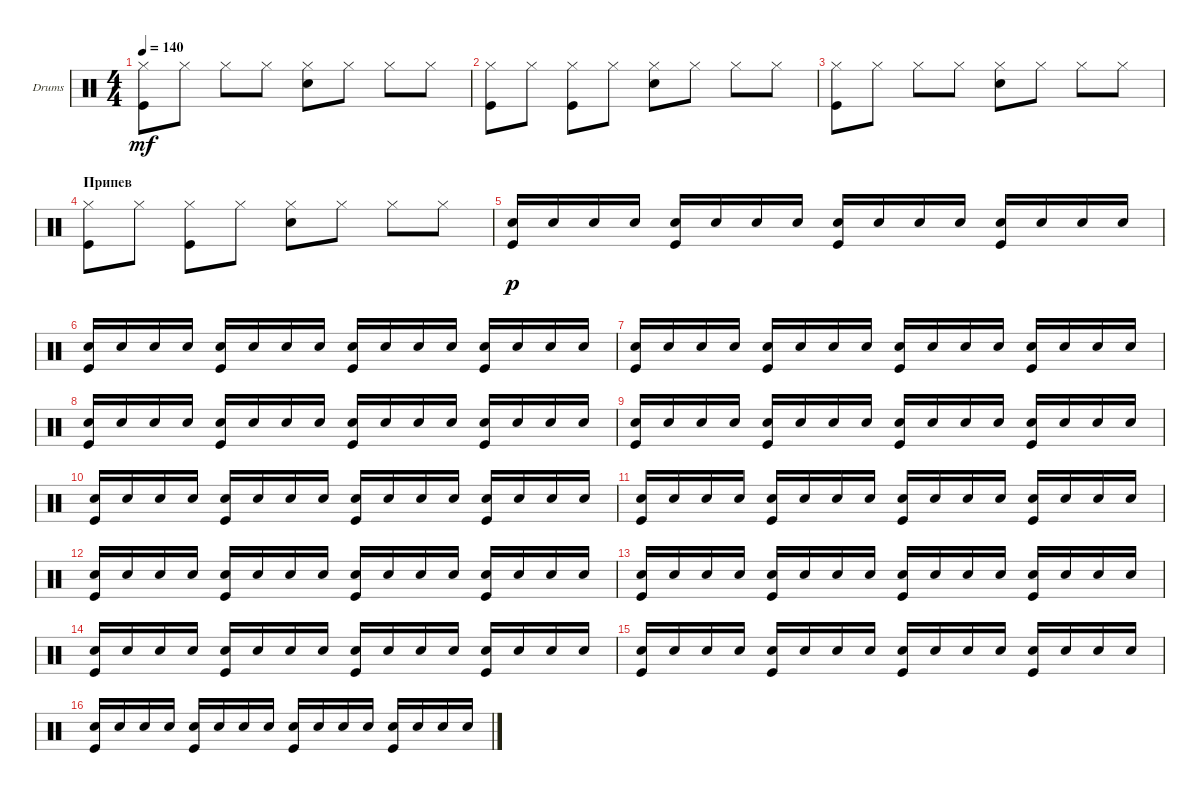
\defaultSystemsLayout 4
\bracketExtendMode groupsimilarinstruments
\firstSystemTrackNameOrientation horizontal
\otherSystemsTrackNameOrientation horizontal
\track ("Ударные" "Drums") {instrument percussion}
\staff {score}
\articulation defaults
\ts (4 4)
\tempo 140
\clef neutral
\scale
0.333333
\ks c
("Hi-Hat (closed)" "Kick (hit)").8{dy mf} "Hi-Hat (closed)".8 "Hi-Hat (closed)".8 "Hi-Hat (closed)".8 ("Hi-Hat (closed)" "Snare (hit) 2").8 "Hi-Hat (closed)".8 "Hi-Hat (closed)".8 "Hi-Hat (closed)".8 |
\scale
0.333333 ("Hi-Hat (closed)" "Kick (hit)").8 "Hi-Hat (closed)".8 ("Hi-Hat (closed)" "Kick (hit)").8 "Hi-Hat (closed)".8 ("Hi-Hat (closed)" "Snare (hit) 2").8 "Hi-Hat (closed)".8 "Hi-Hat (closed)".8 "Hi-Hat (closed)".8 |
\scale
0.333333 ("Hi-Hat (closed)" "Kick (hit)").8 "Hi-Hat (closed)".8 "Hi-Hat (closed)".8 "Hi-Hat (closed)".8 ("Hi-Hat (closed)" "Snare (hit) 2").8 "Hi-Hat (closed)".8 "Hi-Hat (closed)".8 "Hi-Hat (closed)".8 |
\section ("" "Припев")
\scale
0.333333 ("Hi-Hat (closed)" "Kick (hit)").8 "Hi-Hat (closed)".8 ("Hi-Hat (closed)" "Kick (hit)").8 "Hi-Hat (closed)".8 ("Hi-Hat (closed)" "Snare (hit) 2").8 "Hi-Hat (closed)".8 "Hi-Hat (closed)".8 "Hi-Hat (closed)".8 |
\scale
0.333333 ("Snare (hit) 2" "Kick (hit)").16{dy p} "Snare (hit) 2".16 "Snare (hit) 2".16 "Snare (hit) 2".16 ("Snare (hit) 2" "Kick (hit)").16 "Snare (hit) 2".16 "Snare (hit) 2".16 "Snare (hit) 2".16 ("Snare (hit) 2" "Kick (hit)").16 "Snare (hit) 2".16 "Snare (hit) 2".16 "Snare (hit) 2".16 ("Snare (hit) 2" "Kick (hit)").16 "Snare (hit) 2".16 "Snare (hit) 2".16 "Snare (hit) 2".16 |
\scale
0.333333 ("Snare (hit) 2" "Kick (hit)").16 "Snare (hit) 2".16 "Snare (hit) 2".16 "Snare (hit) 2".16 ("Snare (hit) 2" "Kick (hit)").16 "Snare (hit) 2".16 "Snare (hit) 2".16 "Snare (hit) 2".16 ("Snare (hit) 2" "Kick (hit)").16 "Snare (hit) 2".16 "Snare (hit) 2".16 "Snare (hit) 2".16 ("Snare (hit) 2" "Kick (hit)").16 "Snare (hit) 2".16 "Snare (hit) 2".16 "Snare (hit) 2".16 |
\scale
0.333333 ("Snare (hit) 2" "Kick (hit)").16 "Snare (hit) 2".16 "Snare (hit) 2".16 "Snare (hit) 2".16 ("Snare (hit) 2" "Kick (hit)").16 "Snare (hit) 2".16 "Snare (hit) 2".16 "Snare (hit) 2".16 ("Snare (hit) 2" "Kick (hit)").16 "Snare (hit) 2".16 "Snare (hit) 2".16 "Snare (hit) 2".16 ("Snare (hit) 2" "Kick (hit)").16 "Snare (hit) 2".16 "Snare (hit) 2".16 "Snare (hit) 2".16 |
\scale
0.333333 ("Snare (hit) 2" "Kick (hit)").16 "Snare (hit) 2".16 "Snare (hit) 2".16 "Snare (hit) 2".16 ("Snare (hit) 2" "Kick (hit)").16 "Snare (hit) 2".16 "Snare (hit) 2".16 "Snare (hit) 2".16 ("Snare (hit) 2" "Kick (hit)").16 "Snare (hit) 2".16 "Snare (hit) 2".16 "Snare (hit) 2".16 ("Snare (hit) 2" "Kick (hit)").16 "Snare (hit) 2".16 "Snare (hit) 2".16 "Snare (hit) 2".16 |
\scale
0.333333 ("Snare (hit) 2" "Kick (hit)").16 "Snare (hit) 2".16 "Snare (hit) 2".16 "Snare (hit) 2".16 ("Snare (hit) 2" "Kick (hit)").16 "Snare (hit) 2".16 "Snare (hit) 2".16 "Snare (hit) 2".16 ("Snare (hit) 2" "Kick (hit)").16 "Snare (hit) 2".16 "Snare (hit) 2".16 "Snare (hit) 2".16 ("Snare (hit) 2" "Kick (hit)").16 "Snare (hit) 2".16 "Snare (hit) 2".16 "Snare (hit) 2".16 |
\scale
0.333333 ("Snare (hit) 2" "Kick (hit)").16 "Snare (hit) 2".16 "Snare (hit) 2".16 "Snare (hit) 2".16 ("Snare (hit) 2" "Kick (hit)").16 "Snare (hit) 2".16 "Snare (hit) 2".16 "Snare (hit) 2".16 ("Snare (hit) 2" "Kick (hit)").16 "Snare (hit) 2".16 "Snare (hit) 2".16 "Snare (hit) 2".16 ("Snare (hit) 2" "Kick (hit)").16 "Snare (hit) 2".16 "Snare (hit) 2".16 "Snare (hit) 2".16 |
\scale
0.333333 ("Snare (hit) 2" "Kick (hit)").16 "Snare (hit) 2".16 "Snare (hit) 2".16 "Snare (hit) 2".16 ("Snare (hit) 2" "Kick (hit)").16 "Snare (hit) 2".16 "Snare (hit) 2".16 "Snare (hit) 2".16 ("Snare (hit) 2" "Kick (hit)").16 "Snare (hit) 2".16 "Snare (hit) 2".16 "Snare (hit) 2".16 ("Snare (hit) 2" "Kick (hit)").16 "Snare (hit) 2".16 "Snare (hit) 2".16 "Snare (hit) 2".16 |
\scale
0.333333 ("Snare (hit) 2" "Kick (hit)").16 "Snare (hit) 2".16 "Snare (hit) 2".16 "Snare (hit) 2".16 ("Snare (hit) 2" "Kick (hit)").16 "Snare (hit) 2".16 "Snare (hit) 2".16 "Snare (hit) 2".16 ("Snare (hit) 2" "Kick (hit)").16 "Snare (hit) 2".16 "Snare (hit) 2".16 "Snare (hit) 2".16 ("Snare (hit) 2" "Kick (hit)").16 "Snare (hit) 2".16 "Snare (hit) 2".16 "Snare (hit) 2".16 |
\scale
0.333333 ("Snare (hit) 2" "Kick (hit)").16 "Snare (hit) 2".16 "Snare (hit) 2".16 "Snare (hit) 2".16 ("Snare (hit) 2" "Kick (hit)").16 "Snare (hit) 2".16 "Snare (hit) 2".16 "Snare (hit) 2".16 ("Snare (hit) 2" "Kick (hit)").16 "Snare (hit) 2".16 "Snare (hit) 2".16 "Snare (hit) 2".16 ("Snare (hit) 2" "Kick (hit)").16 "Snare (hit) 2".16 "Snare (hit) 2".16 "Snare (hit) 2".16 |
\scale
0.333333 ("Snare (hit) 2" "Kick (hit)").16 "Snare (hit) 2".16 "Snare (hit) 2".16 "Snare (hit) 2".16 ("Snare (hit) 2" "Kick (hit)").16 "Snare (hit) 2".16 "Snare (hit) 2".16 "Snare (hit) 2".16 ("Snare (hit) 2" "Kick (hit)").16 "Snare (hit) 2".16 "Snare (hit) 2".16 "Snare (hit) 2".16 ("Snare (hit) 2" "Kick (hit)").16 "Snare (hit) 2".16 "Snare (hit) 2".16 "Snare (hit) 2".16 |
\scale
0.333333 ("Snare (hit) 2" "Kick (hit)").16 "Snare (hit) 2".16 "Snare (hit) 2".16 "Snare (hit) 2".16 ("Snare (hit) 2" "Kick (hit)").16 "Snare (hit) 2".16 "Snare (hit) 2".16 "Snare (hit) 2".16 ("Snare (hit) 2" "Kick (hit)").16 "Snare (hit) 2".16 "Snare (hit) 2".16 "Snare (hit) 2".16 ("Snare (hit) 2" "Kick (hit)").16 "Snare (hit) 2".16 "Snare (hit) 2".16 "Snare (hit) 2".16 |
\scale
0.333333 ("Snare (hit) 2" "Kick (hit)").16 "Snare (hit) 2".16 "Snare (hit) 2".16 "Snare (hit) 2".16 ("Snare (hit) 2" "Kick (hit)").16 "Snare (hit) 2".16 "Snare (hit) 2".16 "Snare (hit) 2".16 ("Snare (hit) 2" "Kick (hit)").16 "Snare (hit) 2".16 "Snare (hit) 2".16 "Snare (hit) 2".16 ("Snare (hit) 2" "Kick (hit)").16 "Snare (hit) 2".16 "Snare (hit) 2".16 "Snare (hit) 2".16
